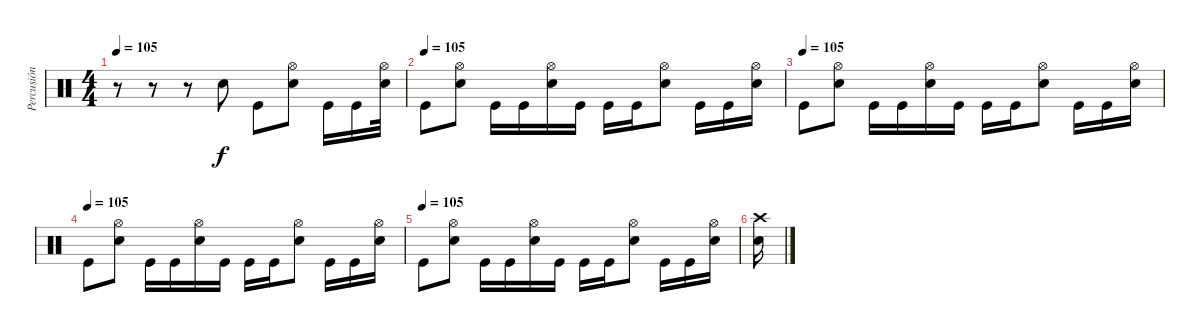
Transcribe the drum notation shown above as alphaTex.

\track ("Percusión" "Percusión") {instrument percussion}
\staff {score}
\articulation defaults
\ts (4 4)
\tempo 105
\clef neutral
\ks c
r.8{dy f} r.8 r.8 "Electric Snare (hit)".8 "Kick (hit)".8 ("Electric Snare (hit)" "Hi-Hat (open)").8 "Kick (hit)".16 "Kick (hit)".16 ("Electric Snare (hit)" "Hi-Hat (open)").32 |
\tempo (105)
"Kick (hit)".8 ("Electric Snare (hit)" "Hi-Hat (open)").8 "Kick (hit)".16 "Kick (hit)".16 ("Electric Snare (hit)" "Hi-Hat (open)").16 "Kick (hit)".16 "Kick (hit)".16 "Kick (hit)".16 ("Electric Snare (hit)" "Hi-Hat (open)").8 "Kick (hit)".16 "Kick (hit)".16 ("Electric Snare (hit)" "Hi-Hat (open)").16 |
\tempo (105)
"Kick (hit)".8 ("Electric Snare (hit)" "Hi-Hat (open)").8 "Kick (hit)".16 "Kick (hit)".16 ("Electric Snare (hit)" "Hi-Hat (open)").16 "Kick (hit)".16 "Kick (hit)".16 "Kick (hit)".16 ("Electric Snare (hit)" "Hi-Hat (open)").8 "Kick (hit)".16 "Kick (hit)".16 ("Electric Snare (hit)" "Hi-Hat (open)").16 |
\tempo (105)
"Kick (hit)".8 ("Electric Snare (hit)" "Hi-Hat (open)").8 "Kick (hit)".16 "Kick (hit)".16 ("Electric Snare (hit)" "Hi-Hat (open)").16 "Kick (hit)".16 "Kick (hit)".16 "Kick (hit)".16 ("Electric Snare (hit)" "Hi-Hat (open)").8 "Kick (hit)".16 "Kick (hit)".16 ("Electric Snare (hit)" "Hi-Hat (open)").16 |
\tempo (105)
"Kick (hit)".8 ("Electric Snare (hit)" "Hi-Hat (open)").8 "Kick (hit)".16 "Kick (hit)".16 ("Electric Snare (hit)" "Hi-Hat (open)").16 "Kick (hit)".16 "Kick (hit)".16 "Kick (hit)".16 ("Electric Snare (hit)" "Hi-Hat (open)").8 "Kick (hit)".16 "Kick (hit)".16 ("Electric Snare (hit)" "Hi-Hat (open)").16 |
("Electric Snare (hit)" "Crash high (hit)").16
